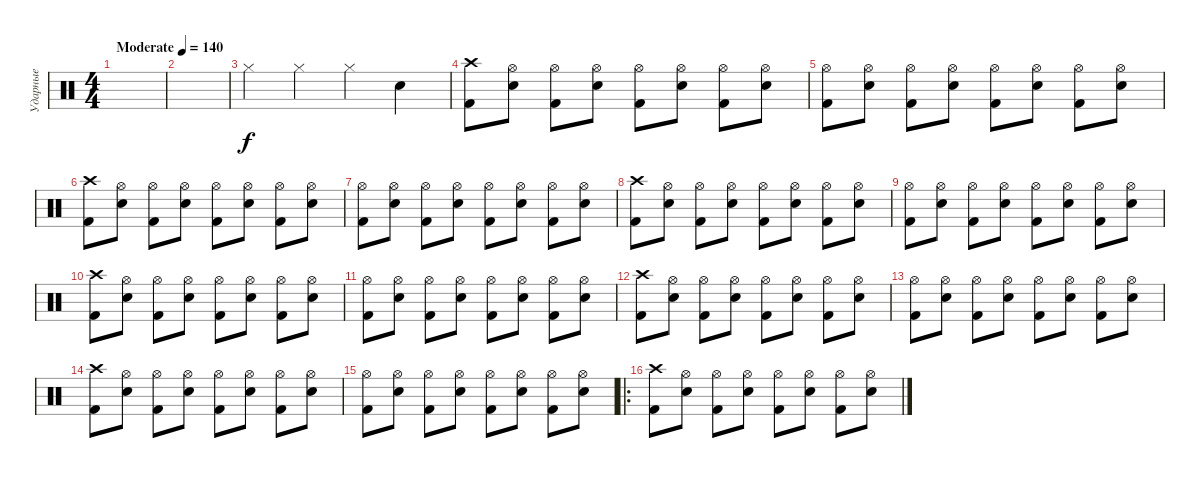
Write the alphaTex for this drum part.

\track ("Ударные" "Ударные") {instrument percussion}
\staff {score}
\articulation defaults
\ts (4 4)
\tempo (140 "Moderate")
\clef neutral
\ks c
|
|
"Hi-Hat (closed)".4 "Hi-Hat (closed)".4 "Hi-Hat (closed)".4 "Electric Snare (hit)".4 |
("Kick (hit) 2" "Crash high (hit)").8 ("Electric Snare (hit)" "Hi-Hat (open)").8 ("Kick (hit) 2" "Hi-Hat (open)").8 ("Electric Snare (hit)" "Hi-Hat (open)").8 ("Kick (hit) 2" "Hi-Hat (open)").8 ("Electric Snare (hit)" "Hi-Hat (open)").8 ("Kick (hit) 2" "Hi-Hat (open)").8 ("Electric Snare (hit)" "Hi-Hat (open)").8 |
("Kick (hit) 2" "Hi-Hat (open)").8 ("Electric Snare (hit)" "Hi-Hat (open)").8 ("Kick (hit) 2" "Hi-Hat (open)").8 ("Electric Snare (hit)" "Hi-Hat (open)").8 ("Kick (hit) 2" "Hi-Hat (open)").8 ("Electric Snare (hit)" "Hi-Hat (open)").8 ("Kick (hit) 2" "Hi-Hat (open)").8 ("Electric Snare (hit)" "Hi-Hat (open)").8 |
("Kick (hit) 2" "Crash high (hit)").8 ("Electric Snare (hit)" "Hi-Hat (open)").8 ("Kick (hit) 2" "Hi-Hat (open)").8 ("Electric Snare (hit)" "Hi-Hat (open)").8 ("Kick (hit) 2" "Hi-Hat (open)").8 ("Electric Snare (hit)" "Hi-Hat (open)").8 ("Kick (hit) 2" "Hi-Hat (open)").8 ("Electric Snare (hit)" "Hi-Hat (open)").8 |
("Kick (hit) 2" "Hi-Hat (open)").8 ("Electric Snare (hit)" "Hi-Hat (open)").8 ("Kick (hit) 2" "Hi-Hat (open)").8 ("Electric Snare (hit)" "Hi-Hat (open)").8 ("Kick (hit) 2" "Hi-Hat (open)").8 ("Electric Snare (hit)" "Hi-Hat (open)").8 ("Kick (hit) 2" "Hi-Hat (open)").8 ("Electric Snare (hit)" "Hi-Hat (open)").8 |
("Kick (hit) 2" "Crash high (hit)").8 ("Electric Snare (hit)" "Hi-Hat (open)").8 ("Kick (hit) 2" "Hi-Hat (open)").8 ("Electric Snare (hit)" "Hi-Hat (open)").8 ("Kick (hit) 2" "Hi-Hat (open)").8 ("Electric Snare (hit)" "Hi-Hat (open)").8 ("Kick (hit) 2" "Hi-Hat (open)").8 ("Electric Snare (hit)" "Hi-Hat (open)").8 |
("Kick (hit) 2" "Hi-Hat (open)").8 ("Electric Snare (hit)" "Hi-Hat (open)").8 ("Kick (hit) 2" "Hi-Hat (open)").8 ("Electric Snare (hit)" "Hi-Hat (open)").8 ("Kick (hit) 2" "Hi-Hat (open)").8 ("Electric Snare (hit)" "Hi-Hat (open)").8 ("Kick (hit) 2" "Hi-Hat (open)").8 ("Electric Snare (hit)" "Hi-Hat (open)").8 |
("Kick (hit) 2" "Crash high (hit)").8 ("Electric Snare (hit)" "Hi-Hat (open)").8 ("Kick (hit) 2" "Hi-Hat (open)").8 ("Electric Snare (hit)" "Hi-Hat (open)").8 ("Kick (hit) 2" "Hi-Hat (open)").8 ("Electric Snare (hit)" "Hi-Hat (open)").8 ("Kick (hit) 2" "Hi-Hat (open)").8 ("Electric Snare (hit)" "Hi-Hat (open)").8 |
("Kick (hit) 2" "Hi-Hat (open)").8 ("Electric Snare (hit)" "Hi-Hat (open)").8 ("Kick (hit) 2" "Hi-Hat (open)").8 ("Electric Snare (hit)" "Hi-Hat (open)").8 ("Kick (hit) 2" "Hi-Hat (open)").8 ("Electric Snare (hit)" "Hi-Hat (open)").8 ("Kick (hit) 2" "Hi-Hat (open)").8 ("Electric Snare (hit)" "Hi-Hat (open)").8 |
("Kick (hit) 2" "Crash high (hit)").8 ("Electric Snare (hit)" "Hi-Hat (open)").8 ("Kick (hit) 2" "Hi-Hat (open)").8 ("Electric Snare (hit)" "Hi-Hat (open)").8 ("Kick (hit) 2" "Hi-Hat (open)").8 ("Electric Snare (hit)" "Hi-Hat (open)").8 ("Kick (hit) 2" "Hi-Hat (open)").8 ("Electric Snare (hit)" "Hi-Hat (open)").8 |
("Kick (hit) 2" "Hi-Hat (open)").8 ("Electric Snare (hit)" "Hi-Hat (open)").8 ("Kick (hit) 2" "Hi-Hat (open)").8 ("Electric Snare (hit)" "Hi-Hat (open)").8 ("Kick (hit) 2" "Hi-Hat (open)").8 ("Electric Snare (hit)" "Hi-Hat (open)").8 ("Kick (hit) 2" "Hi-Hat (open)").8 ("Electric Snare (hit)" "Hi-Hat (open)").8 |
("Kick (hit) 2" "Crash high (hit)").8 ("Electric Snare (hit)" "Hi-Hat (open)").8 ("Kick (hit) 2" "Hi-Hat (open)").8 ("Electric Snare (hit)" "Hi-Hat (open)").8 ("Kick (hit) 2" "Hi-Hat (open)").8 ("Electric Snare (hit)" "Hi-Hat (open)").8 ("Kick (hit) 2" "Hi-Hat (open)").8 ("Electric Snare (hit)" "Hi-Hat (open)").8 |
("Kick (hit) 2" "Hi-Hat (open)").8 ("Electric Snare (hit)" "Hi-Hat (open)").8 ("Kick (hit) 2" "Hi-Hat (open)").8 ("Electric Snare (hit)" "Hi-Hat (open)").8 ("Kick (hit) 2" "Hi-Hat (open)").8 ("Electric Snare (hit)" "Hi-Hat (open)").8 ("Kick (hit) 2" "Hi-Hat (open)").8 ("Electric Snare (hit)" "Hi-Hat (open)").8 |
\ro
("Kick (hit) 2" "Crash high (hit)").8 ("Electric Snare (hit)" "Hi-Hat (open)").8 ("Kick (hit) 2" "Hi-Hat (open)").8 ("Electric Snare (hit)" "Hi-Hat (open)").8 ("Kick (hit) 2" "Hi-Hat (open)").8 ("Electric Snare (hit)" "Hi-Hat (open)").8 ("Kick (hit) 2" "Hi-Hat (open)").8 ("Electric Snare (hit)" "Hi-Hat (open)").8
